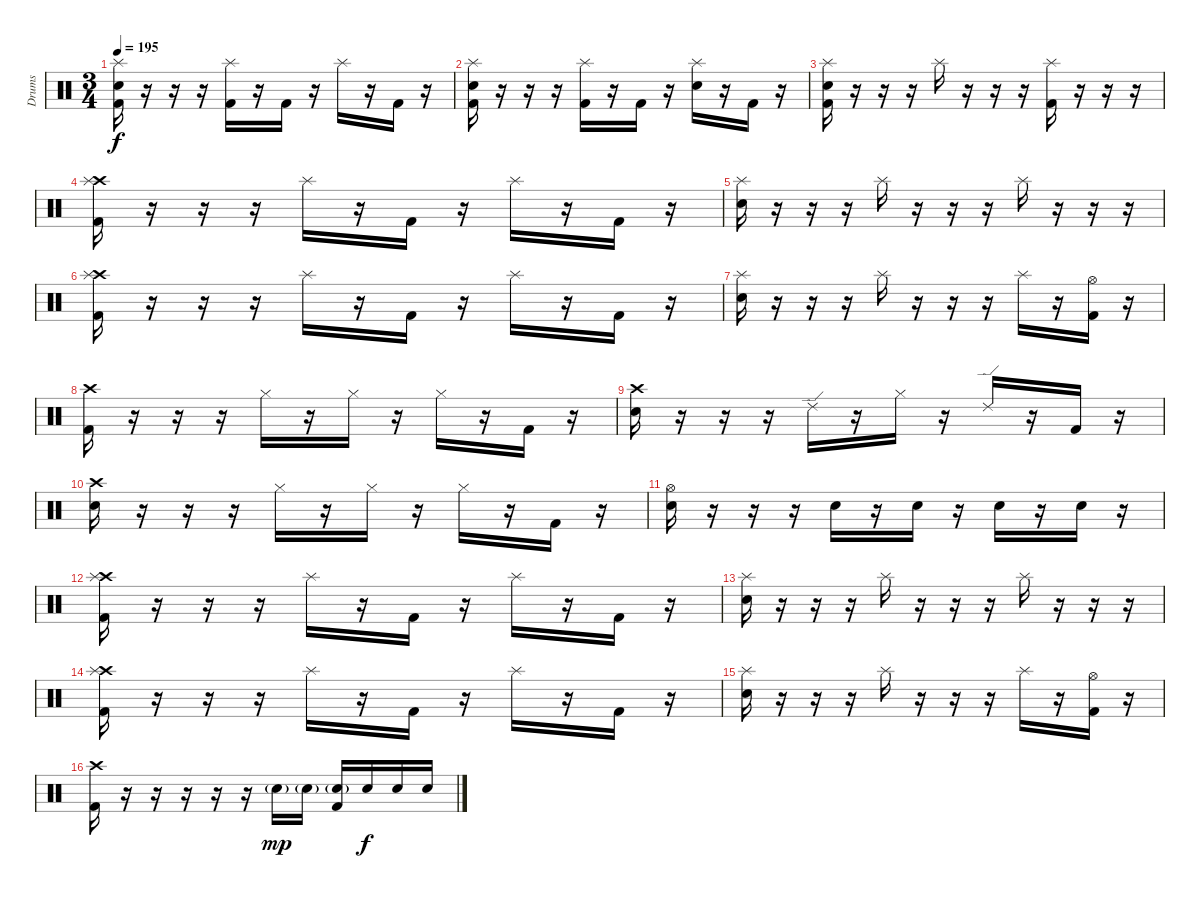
\track ("Drums" "Drums") {instrument percussion}
\staff {score}
\articulation defaults
\ts (3 4)
\tempo 195
\clef neutral
\ks c
("Splash (hit)" "Snare (hit) 2" "Kick (hit) 2").16{dy f} r.16 r.16 r.16 ("Splash (hit)" "Kick (hit) 2").16 r.16 "Kick (hit) 2".16 r.16 "Splash (hit)".16 r.16 "Kick (hit) 2".16 r.16 |
("Splash (hit)" "Snare (hit) 2" "Kick (hit) 2").16 r.16 r.16 r.16 ("Splash (hit)" "Kick (hit) 2").16 r.16 "Kick (hit) 2".16 r.16 ("Splash (hit)" "Snare (hit) 2").16 r.16 "Kick (hit) 2".16 r.16 |
("Splash (hit)" "Snare (hit) 2" "Kick (hit) 2").16 r.16 r.16 r.16 "Splash (hit)".16 r.16 r.16 r.16 ("Splash (hit)" "Kick (hit) 2").16 r.16 r.16 r.16 |
("Crash high (hit)" "Splash (hit)" "Kick (hit) 2").16 r.16 r.16 r.16 "Splash (hit)".16 r.16 "Kick (hit) 2".16 r.16 "Splash (hit)".16 r.16 "Kick (hit) 2".16 r.16 |
("Splash (hit)" "Snare (hit) 2").16 r.16 r.16 r.16 "Splash (hit)".16 r.16 r.16 r.16 "Splash (hit)".16 r.16 r.16 r.16 |
("Crash high (hit)" "Splash (hit)" "Kick (hit) 2").16 r.16 r.16 r.16 "Splash (hit)".16 r.16 "Kick (hit) 2".16 r.16 "Splash (hit)".16 r.16 "Kick (hit) 2".16 r.16 |
("Splash (hit)" "Snare (hit) 2").16 r.16 r.16 r.16 "Splash (hit)".16 r.16 r.16 r.16 "Splash (hit)".16 r.16 ("Hi-Hat (open)" "Kick (hit) 2").16 r.16 |
("Crash high (hit)" "Kick (hit) 2").16 r.16 r.16 r.16 "Hi-Hat (closed)".16 r.16 "Hi-Hat (closed)".16 r.16 "Hi-Hat (closed)".16 r.16 "Kick (hit) 2".16 r.16 |
("Crash high (hit)" "Snare (hit) 2").16 r.16 r.16 r.16 "Ride (edge) 2".16 r.16 "Hi-Hat (closed)".16 r.16 "Ride (edge) 2".16 r.16 "Kick (hit) 2".16 r.16 |
("Crash high (hit)" "Snare (hit) 2").16 r.16 r.16 r.16 "Hi-Hat (closed)".16 r.16 "Hi-Hat (closed)".16 r.16 "Hi-Hat (closed)".16 r.16 "Kick (hit) 2".16 r.16 |
("Hi-Hat (open)" "Snare (hit) 2").16 r.16 r.16 r.16 "Snare (hit) 2".16 r.16 "Snare (hit) 2".16 r.16 "Snare (hit) 2".16 r.16 "Snare (hit) 2".16 r.16 |
("Crash high (hit)" "Splash (hit)" "Kick (hit) 2").16 r.16 r.16 r.16 "Splash (hit)".16 r.16 "Kick (hit) 2".16 r.16 "Splash (hit)".16 r.16 "Kick (hit) 2".16 r.16 |
("Splash (hit)" "Snare (hit) 2").16 r.16 r.16 r.16 "Splash (hit)".16 r.16 r.16 r.16 "Splash (hit)".16 r.16 r.16 r.16 |
("Crash high (hit)" "Splash (hit)" "Kick (hit) 2").16 r.16 r.16 r.16 "Splash (hit)".16 r.16 "Kick (hit) 2".16 r.16 "Splash (hit)".16 r.16 "Kick (hit) 2".16 r.16 |
("Splash (hit)" "Snare (hit) 2").16 r.16 r.16 r.16 "Splash (hit)".16 r.16 r.16 r.16 "Splash (hit)".16 r.16 ("Hi-Hat (open)" "Kick (hit) 2").16 r.16 |
("Crash high (hit)" "Kick (hit) 2").16 r.16 r.16 r.16 r.16 r.16 "Snare (hit) 2"{g}.16{dy mp} "Snare (hit) 2"{g}.16 ("Snare (hit) 2"{g} "Kick (hit) 2").16 "Snare (hit) 2".16{dy f} "Snare (hit) 2".16 "Snare (hit) 2".16
